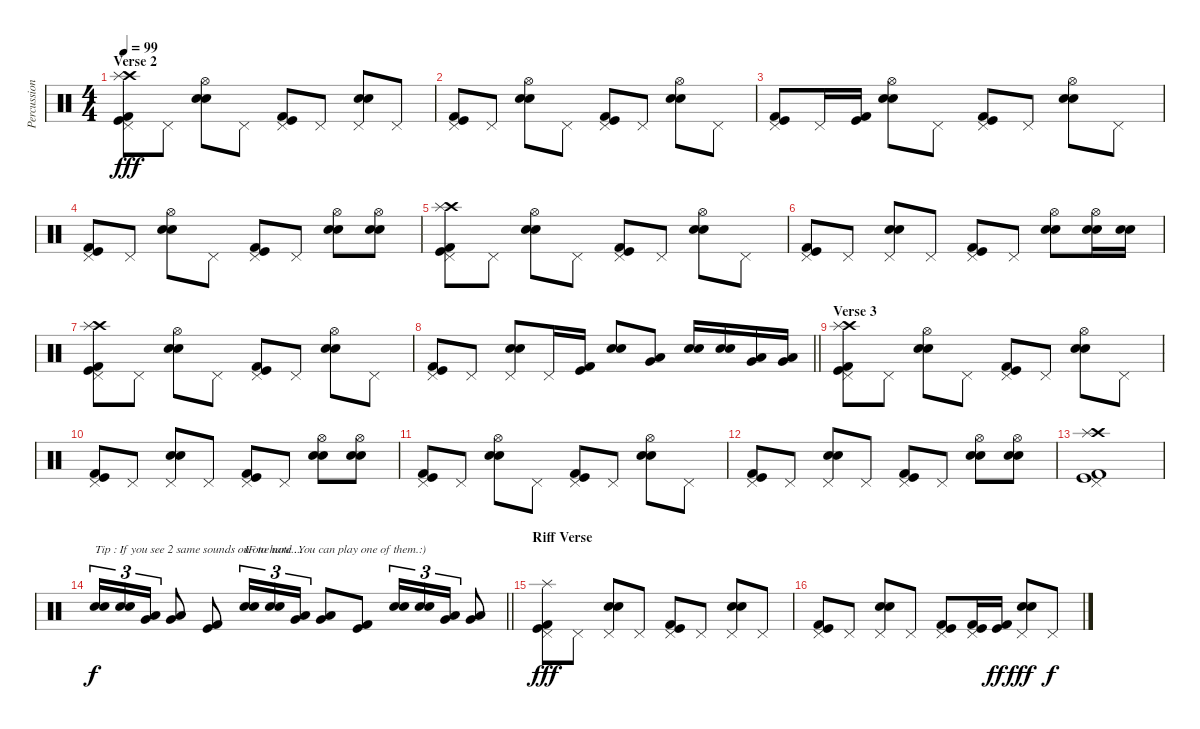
\track ("Percussion" "Percussion") {instrument percussion}
\staff {score}
\articulation defaults
\ts (4 4)
\section ("" "Verse 2")
\tempo 99
\clef neutral
\ks c
("Crash high (hit)" "Splash (hit)" "Pedal Hi-Hat (hit)" "Kick (hit)" "Kick (hit) 2").8{dy fff} "Pedal Hi-Hat (hit)".8 ("Electric Snare (hit)" "Snare (hit) 2" "Hi-Hat (open)").8 "Pedal Hi-Hat (hit)".8 ("Pedal Hi-Hat (hit)" "Kick (hit)" "Kick (hit) 2").8 "Pedal Hi-Hat (hit)".8 ("Electric Snare (hit)" "Snare (hit) 2" "Pedal Hi-Hat (hit)").8 "Pedal Hi-Hat (hit)".8 |
("Pedal Hi-Hat (hit)" "Kick (hit)" "Kick (hit) 2").8 "Pedal Hi-Hat (hit)".8 ("Electric Snare (hit)" "Snare (hit) 2" "Hi-Hat (open)").8 "Pedal Hi-Hat (hit)".8 ("Pedal Hi-Hat (hit)" "Kick (hit)" "Kick (hit) 2").8 "Pedal Hi-Hat (hit)".8 ("Electric Snare (hit)" "Snare (hit) 2" "Hi-Hat (open)").8 "Pedal Hi-Hat (hit)".8 |
("Pedal Hi-Hat (hit)" "Kick (hit)" "Kick (hit) 2").8 "Pedal Hi-Hat (hit)".16 ("Kick (hit)" "Kick (hit) 2").16 ("Electric Snare (hit)" "Snare (hit) 2" "Hi-Hat (open)").8 "Pedal Hi-Hat (hit)".8 ("Pedal Hi-Hat (hit)" "Kick (hit)" "Kick (hit) 2").8 "Pedal Hi-Hat (hit)".8 ("Electric Snare (hit)" "Snare (hit) 2" "Hi-Hat (open)").8 "Pedal Hi-Hat (hit)".8 |
("Pedal Hi-Hat (hit)" "Kick (hit)" "Kick (hit) 2").8 "Pedal Hi-Hat (hit)".8 ("Electric Snare (hit)" "Snare (hit) 2" "Hi-Hat (open)").8 "Pedal Hi-Hat (hit)".8 ("Pedal Hi-Hat (hit)" "Kick (hit)" "Kick (hit) 2").8 "Pedal Hi-Hat (hit)".8 ("Electric Snare (hit)" "Snare (hit) 2" "Hi-Hat (open)").8 ("Electric Snare (hit)" "Snare (hit) 2" "Hi-Hat (open)").8 |
("Crash high (hit)" "Splash (hit)" "Pedal Hi-Hat (hit)" "Kick (hit)" "Kick (hit) 2").8 "Pedal Hi-Hat (hit)".8 ("Electric Snare (hit)" "Snare (hit) 2" "Hi-Hat (open)").8 "Pedal Hi-Hat (hit)".8 ("Pedal Hi-Hat (hit)" "Kick (hit)" "Kick (hit) 2").8 "Pedal Hi-Hat (hit)".8 ("Electric Snare (hit)" "Snare (hit) 2" "Hi-Hat (open)").8 "Pedal Hi-Hat (hit)".8 |
("Pedal Hi-Hat (hit)" "Kick (hit)" "Kick (hit) 2").8 "Pedal Hi-Hat (hit)".8 ("Electric Snare (hit)" "Snare (hit) 2" "Pedal Hi-Hat (hit)").8 "Pedal Hi-Hat (hit)".8 ("Pedal Hi-Hat (hit)" "Kick (hit)" "Kick (hit) 2").8 "Pedal Hi-Hat (hit)".8 ("Electric Snare (hit)" "Snare (hit) 2" "Hi-Hat (open)").8 ("Electric Snare (hit)" "Snare (hit) 2" "Hi-Hat (open)").16 ("Electric Snare (hit)" "Snare (hit) 2").16 |
("Crash high (hit)" "Splash (hit)" "Pedal Hi-Hat (hit)" "Kick (hit)" "Kick (hit) 2").8 "Pedal Hi-Hat (hit)".8 ("Electric Snare (hit)" "Snare (hit) 2" "Hi-Hat (open)").8 "Pedal Hi-Hat (hit)".8 ("Pedal Hi-Hat (hit)" "Kick (hit)" "Kick (hit) 2").8 "Pedal Hi-Hat (hit)".8 ("Electric Snare (hit)" "Snare (hit) 2" "Hi-Hat (open)").8 "Pedal Hi-Hat (hit)".8 |
\barLineRight lightlight
("Pedal Hi-Hat (hit)" "Kick (hit)" "Kick (hit) 2").8 "Pedal Hi-Hat (hit)".8 ("Electric Snare (hit)" "Snare (hit) 2" "Pedal Hi-Hat (hit)").8 "Pedal Hi-Hat (hit)".16 ("Kick (hit)" "Kick (hit) 2").16 ("Electric Snare (hit)" "Snare (hit) 2").8{bd 120} ("Low Tom (hit)" "Very Low Tom (hit)").8{bd 120} ("Electric Snare (hit)" "Snare (hit) 2").16 ("Electric Snare (hit)" "Snare (hit) 2").16 ("Very Low Tom (hit)" "Low Tom (hit)").16 ("Very Low Tom (hit)" "Low Tom (hit)").16 |
\section ("" "Verse 3")
("Crash high (hit)" "Splash (hit)" "Pedal Hi-Hat (hit)" "Kick (hit)" "Kick (hit) 2").8 "Pedal Hi-Hat (hit)".8 ("Electric Snare (hit)" "Snare (hit) 2" "Hi-Hat (open)").8 "Pedal Hi-Hat (hit)".8 ("Pedal Hi-Hat (hit)" "Kick (hit)" "Kick (hit) 2").8 "Pedal Hi-Hat (hit)".8 ("Electric Snare (hit)" "Snare (hit) 2" "Hi-Hat (open)").8 "Pedal Hi-Hat (hit)".8 |
("Pedal Hi-Hat (hit)" "Kick (hit)" "Kick (hit) 2").8 "Pedal Hi-Hat (hit)".8 ("Electric Snare (hit)" "Snare (hit) 2" "Pedal Hi-Hat (hit)").8 "Pedal Hi-Hat (hit)".8 ("Pedal Hi-Hat (hit)" "Kick (hit)" "Kick (hit) 2").8 "Pedal Hi-Hat (hit)".8 ("Electric Snare (hit)" "Snare (hit) 2" "Hi-Hat (open)").8 ("Electric Snare (hit)" "Snare (hit) 2" "Hi-Hat (open)").8 |
("Pedal Hi-Hat (hit)" "Kick (hit)" "Kick (hit) 2").8 "Pedal Hi-Hat (hit)".8 ("Electric Snare (hit)" "Snare (hit) 2" "Hi-Hat (open)").8 "Pedal Hi-Hat (hit)".8 ("Pedal Hi-Hat (hit)" "Kick (hit)" "Kick (hit) 2").8 "Pedal Hi-Hat (hit)".8 ("Electric Snare (hit)" "Snare (hit) 2" "Hi-Hat (open)").8 "Pedal Hi-Hat (hit)".8 |
("Pedal Hi-Hat (hit)" "Kick (hit)" "Kick (hit) 2").8 "Pedal Hi-Hat (hit)".8 ("Electric Snare (hit)" "Snare (hit) 2" "Pedal Hi-Hat (hit)").8 "Pedal Hi-Hat (hit)".8 ("Pedal Hi-Hat (hit)" "Kick (hit)" "Kick (hit) 2").8 "Pedal Hi-Hat (hit)".8 ("Electric Snare (hit)" "Snare (hit) 2" "Hi-Hat (open)").8 ("Electric Snare (hit)" "Snare (hit) 2" "Hi-Hat (open)").8 |
("Crash high (hit)" "Splash (hit)" "Pedal Hi-Hat (hit)" "Kick (hit)" "Kick (hit) 2").1 |
\barLineRight lightlight
("Electric Snare (hit)" "Snare (hit) 2").16{tu (3 2) txt "Tip : If you see 2 same sounds on one note...." dy f} ("Electric Snare (hit)" "Snare (hit) 2").16{tu (3 2)} ("Low Tom (hit)" "Very Low Tom (hit)").16{tu (3 2)} ("Low Tom (hit)" "Very Low Tom (hit)").8 ("Kick (hit)" "Kick (hit) 2").8 ("Electric Snare (hit)" "Snare (hit) 2").16{tu (3 2) txt "IF to hard .You can play one of them.:)"} ("Electric Snare (hit)" "Snare (hit) 2").16{tu (3 2)} ("Low Tom (hit)" "Very Low Tom (hit)").16{tu (3 2)} ("Low Tom (hit)" "Very Low Tom (hit)").8 ("Kick (hit)" "Kick (hit) 2").8 ("Electric Snare (hit)" "Snare (hit) 2").16{tu (3 2)} ("Electric Snare (hit)" "Snare (hit) 2").16{tu (3 2)} ("Low Tom (hit)" "Very Low Tom (hit)").16{tu (3 2)} ("Low Tom (hit)" "Very Low Tom (hit)").8 |
\section ("" "Riff Verse")
("Splash (hit)" "Pedal Hi-Hat (hit)" "Kick (hit)" "Kick (hit) 2").8{dy fff} "Pedal Hi-Hat (hit)".8 ("Electric Snare (hit)" "Snare (hit) 2" "Pedal Hi-Hat (hit)").8 "Pedal Hi-Hat (hit)".8 ("Pedal Hi-Hat (hit)" "Kick (hit)" "Kick (hit) 2").8 "Pedal Hi-Hat (hit)".8 ("Electric Snare (hit)" "Snare (hit) 2" "Pedal Hi-Hat (hit)").8 "Pedal Hi-Hat (hit)".8 |
("Pedal Hi-Hat (hit)" "Kick (hit)" "Kick (hit) 2").8 "Pedal Hi-Hat (hit)".8 ("Electric Snare (hit)" "Snare (hit) 2" "Pedal Hi-Hat (hit)").8 "Pedal Hi-Hat (hit)".8 ("Pedal Hi-Hat (hit)" "Kick (hit)" "Kick (hit) 2").8 ("Pedal Hi-Hat (hit)" "Kick (hit)" "Kick (hit) 2").16 ("Kick (hit) 2" "Kick (hit)").16{dy ff} ("Electric Snare (hit)" "Snare (hit) 2" "Pedal Hi-Hat (hit)").8{dy fff} "Pedal Hi-Hat (hit)".8{dy f}
